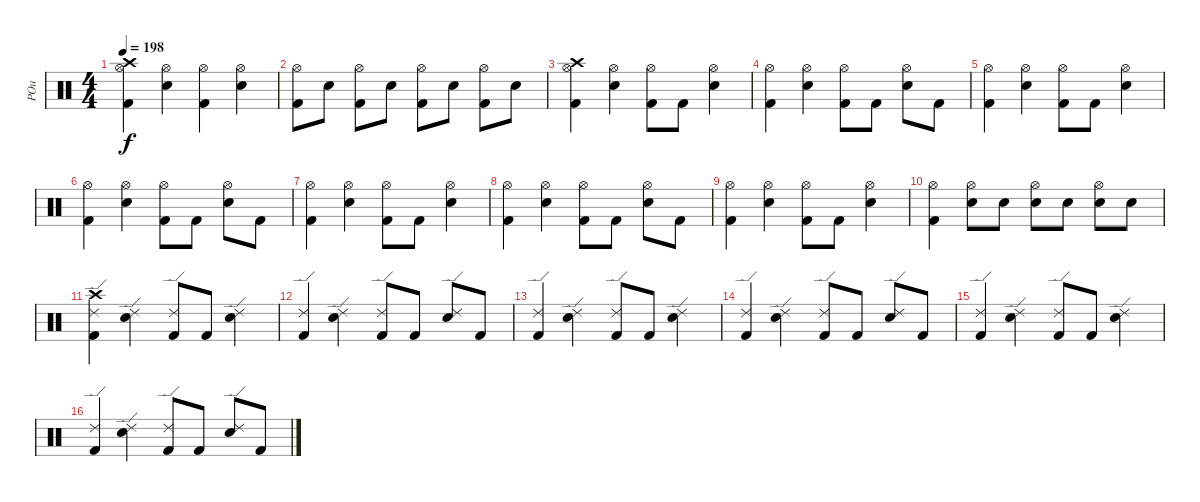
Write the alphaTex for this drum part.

\track ("POu" "POu") {instrument percussion}
\staff {score}
\articulation defaults
\ts (4 4)
\tempo 198
\clef neutral
\ks c
("Crash high (hit)" "Kick (hit) 2" "Hi-Hat (open)").4{dy f} ("Electric Snare (hit)" "Hi-Hat (open)").4 ("Kick (hit) 2" "Hi-Hat (open)").4 ("Electric Snare (hit)" "Hi-Hat (open)").4 |
("Kick (hit) 2" "Hi-Hat (open)").8 "Electric Snare (hit)".8 ("Kick (hit) 2" "Hi-Hat (open)").8 "Electric Snare (hit)".8 ("Kick (hit) 2" "Hi-Hat (open)").8 "Electric Snare (hit)".8 ("Kick (hit) 2" "Hi-Hat (open)").8 "Electric Snare (hit)".8 |
("Crash high (hit)" "Kick (hit) 2" "Hi-Hat (open)").4 ("Electric Snare (hit)" "Hi-Hat (open)").4 ("Kick (hit) 2" "Hi-Hat (open)").8 "Kick (hit) 2".8 ("Electric Snare (hit)" "Hi-Hat (open)").4 |
("Kick (hit) 2" "Hi-Hat (open)").4 ("Electric Snare (hit)" "Hi-Hat (open)").4 ("Kick (hit) 2" "Hi-Hat (open)").8 "Kick (hit) 2".8 ("Electric Snare (hit)" "Hi-Hat (open)").8 "Kick (hit) 2".8 |
("Kick (hit) 2" "Hi-Hat (open)").4 ("Electric Snare (hit)" "Hi-Hat (open)").4 ("Kick (hit) 2" "Hi-Hat (open)").8 "Kick (hit) 2".8 ("Electric Snare (hit)" "Hi-Hat (open)").4 |
("Kick (hit) 2" "Hi-Hat (open)").4 ("Electric Snare (hit)" "Hi-Hat (open)").4 ("Kick (hit) 2" "Hi-Hat (open)").8 "Kick (hit) 2".8 ("Electric Snare (hit)" "Hi-Hat (open)").8 "Kick (hit) 2".8 |
("Kick (hit) 2" "Hi-Hat (open)").4 ("Electric Snare (hit)" "Hi-Hat (open)").4 ("Kick (hit) 2" "Hi-Hat (open)").8 "Kick (hit) 2".8 ("Electric Snare (hit)" "Hi-Hat (open)").4 |
("Kick (hit) 2" "Hi-Hat (open)").4 ("Electric Snare (hit)" "Hi-Hat (open)").4 ("Kick (hit) 2" "Hi-Hat (open)").8 "Kick (hit) 2".8 ("Electric Snare (hit)" "Hi-Hat (open)").8 "Kick (hit) 2".8 |
("Kick (hit) 2" "Hi-Hat (open)").4 ("Electric Snare (hit)" "Hi-Hat (open)").4 ("Kick (hit) 2" "Hi-Hat (open)").8 "Kick (hit) 2".8 ("Electric Snare (hit)" "Hi-Hat (open)").4 |
("Kick (hit) 2" "Hi-Hat (open)").4 ("Electric Snare (hit)" "Hi-Hat (open)").8 "Electric Snare (hit)".8 ("Electric Snare (hit)" "Hi-Hat (open)").8 "Electric Snare (hit)".8 ("Electric Snare (hit)" "Hi-Hat (open)").8 "Electric Snare (hit)".8 |
("Crash high (hit)" "Kick (hit) 2" "Ride (edge) 2").4 ("Electric Snare (hit)" "Ride (edge) 2").4 ("Kick (hit) 2" "Ride (edge) 2").8 "Kick (hit) 2".8 ("Electric Snare (hit)" "Ride (edge) 2").4 |
("Kick (hit) 2" "Ride (edge) 2").4 ("Electric Snare (hit)" "Ride (edge) 2").4 ("Kick (hit) 2" "Ride (edge) 2").8 "Kick (hit) 2".8 ("Electric Snare (hit)" "Ride (edge) 2").8 "Kick (hit) 2".8 |
("Kick (hit) 2" "Ride (edge) 2").4 ("Electric Snare (hit)" "Ride (edge) 2").4 ("Kick (hit) 2" "Ride (edge) 2").8 "Kick (hit) 2".8 ("Electric Snare (hit)" "Ride (edge) 2").4 |
("Kick (hit) 2" "Ride (edge) 2").4 ("Electric Snare (hit)" "Ride (edge) 2").4 ("Kick (hit) 2" "Ride (edge) 2").8 "Kick (hit) 2".8 ("Electric Snare (hit)" "Ride (edge) 2").8 "Kick (hit) 2".8 |
("Kick (hit) 2" "Ride (edge) 2").4 ("Electric Snare (hit)" "Ride (edge) 2").4 ("Kick (hit) 2" "Ride (edge) 2").8 "Kick (hit) 2".8 ("Electric Snare (hit)" "Ride (edge) 2").4 |
("Kick (hit) 2" "Ride (edge) 2").4 ("Electric Snare (hit)" "Ride (edge) 2").4 ("Kick (hit) 2" "Ride (edge) 2").8 "Kick (hit) 2".8 ("Electric Snare (hit)" "Ride (edge) 2").8 "Kick (hit) 2".8
